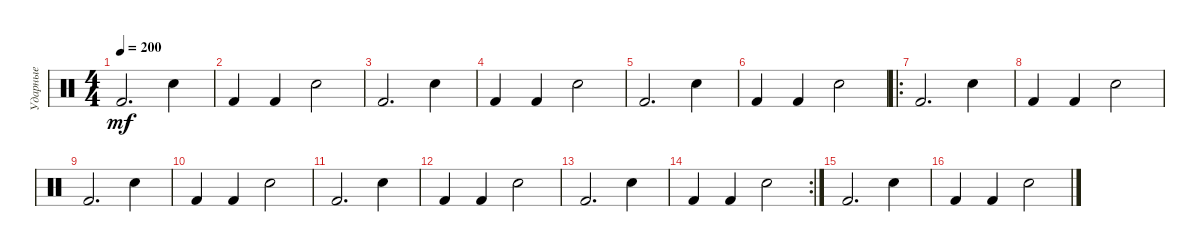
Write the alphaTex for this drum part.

\track ("Ударные" "Ударные") {instrument percussion}
\staff {score}
\articulation defaults
\ts (4 4)
\tempo 200
\clef neutral
\ks c "Kick (hit) 2".2{d dy mf} "Snare (hit) 2".4
|
"Kick (hit) 2".4 "Kick (hit) 2".4 "Snare (hit) 2".2 |
"Kick (hit) 2".2{d} "Snare (hit) 2".4 |
"Kick (hit) 2".4 "Kick (hit) 2".4 "Snare (hit) 2".2 |
"Kick (hit) 2".2{d} "Snare (hit) 2".4 |
"Kick (hit) 2".4 "Kick (hit) 2".4 "Snare (hit) 2".2 |
\ro "Kick (hit) 2".2{d} "Snare (hit) 2".4
|
"Kick (hit) 2".4 "Kick (hit) 2".4 "Snare (hit) 2".2 |
"Kick (hit) 2".2{d} "Snare (hit) 2".4 |
"Kick (hit) 2".4 "Kick (hit) 2".4 "Snare (hit) 2".2 |
"Kick (hit) 2".2{d} "Snare (hit) 2".4 |
"Kick (hit) 2".4 "Kick (hit) 2".4 "Snare (hit) 2".2 |
"Kick (hit) 2".2{d} "Snare (hit) 2".4 |
\rc 2 "Kick (hit) 2".4 "Kick (hit) 2".4 "Snare (hit) 2".2
|
"Kick (hit) 2".2{d} "Snare (hit) 2".4 |
"Kick (hit) 2".4 "Kick (hit) 2".4 "Snare (hit) 2".2
